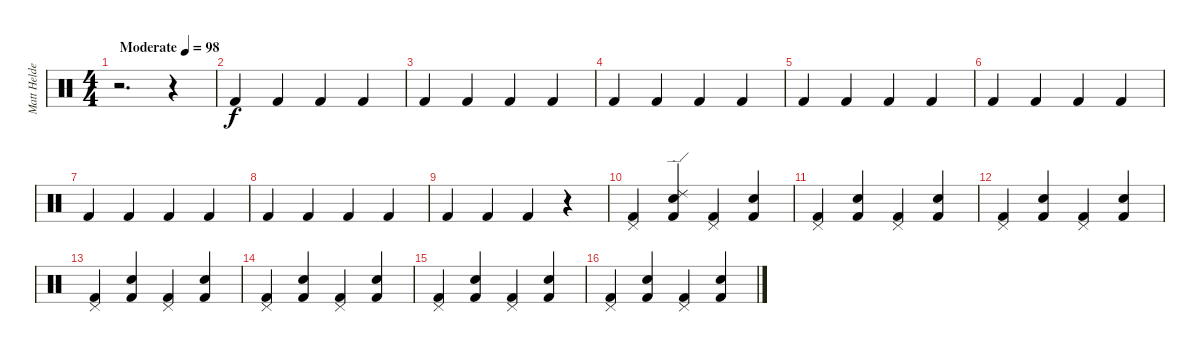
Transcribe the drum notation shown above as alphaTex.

\track ("Matt Helders" "Matt Helde") {instrument percussion}
\staff {score}
\articulation defaults
\ts (4 4)
\tempo (98 "Moderate")
\clef neutral
\ks c
r.2{d dy f} r.4 |
"Kick (hit) 2".4 "Kick (hit) 2".4 "Kick (hit) 2".4 "Kick (hit) 2".4 |
"Kick (hit) 2".4 "Kick (hit) 2".4 "Kick (hit) 2".4 "Kick (hit) 2".4 |
"Kick (hit) 2".4 "Kick (hit) 2".4 "Kick (hit) 2".4 "Kick (hit) 2".4 |
"Kick (hit) 2".4 "Kick (hit) 2".4 "Kick (hit) 2".4 "Kick (hit) 2".4 |
"Kick (hit) 2".4 "Kick (hit) 2".4 "Kick (hit) 2".4 "Kick (hit) 2".4 |
"Kick (hit) 2".4 "Kick (hit) 2".4 "Kick (hit) 2".4 "Kick (hit) 2".4 |
"Kick (hit) 2".4 "Kick (hit) 2".4 "Kick (hit) 2".4 "Kick (hit) 2".4 |
"Kick (hit) 2".4 "Kick (hit) 2".4 "Kick (hit) 2".4 r.4 |
("Kick (hit) 2" "Pedal Hi-Hat (hit)").4 ("Snare (hit) 2" "Kick (hit) 2" "Ride (edge) 2").4 ("Kick (hit) 2" "Pedal Hi-Hat (hit)").4 ("Snare (hit) 2" "Kick (hit) 2").4 |
("Kick (hit) 2" "Pedal Hi-Hat (hit)").4 ("Snare (hit) 2" "Kick (hit) 2").4 ("Kick (hit) 2" "Pedal Hi-Hat (hit)").4 ("Snare (hit) 2" "Kick (hit) 2").4 |
("Kick (hit) 2" "Pedal Hi-Hat (hit)").4 ("Snare (hit) 2" "Kick (hit) 2").4 ("Kick (hit) 2" "Pedal Hi-Hat (hit)").4 ("Snare (hit) 2" "Kick (hit) 2").4 |
("Kick (hit) 2" "Pedal Hi-Hat (hit)").4 ("Snare (hit) 2" "Kick (hit) 2").4 ("Kick (hit) 2" "Pedal Hi-Hat (hit)").4 ("Snare (hit) 2" "Kick (hit) 2").4 |
("Kick (hit) 2" "Pedal Hi-Hat (hit)").4 ("Snare (hit) 2" "Kick (hit) 2").4 ("Kick (hit) 2" "Pedal Hi-Hat (hit)").4 ("Snare (hit) 2" "Kick (hit) 2").4 |
("Kick (hit) 2" "Pedal Hi-Hat (hit)").4 ("Snare (hit) 2" "Kick (hit) 2").4 ("Kick (hit) 2" "Pedal Hi-Hat (hit)").4 ("Snare (hit) 2" "Kick (hit) 2").4 |
("Kick (hit) 2" "Pedal Hi-Hat (hit)").4 ("Snare (hit) 2" "Kick (hit) 2").4 ("Kick (hit) 2" "Pedal Hi-Hat (hit)").4 ("Snare (hit) 2" "Kick (hit) 2").4
